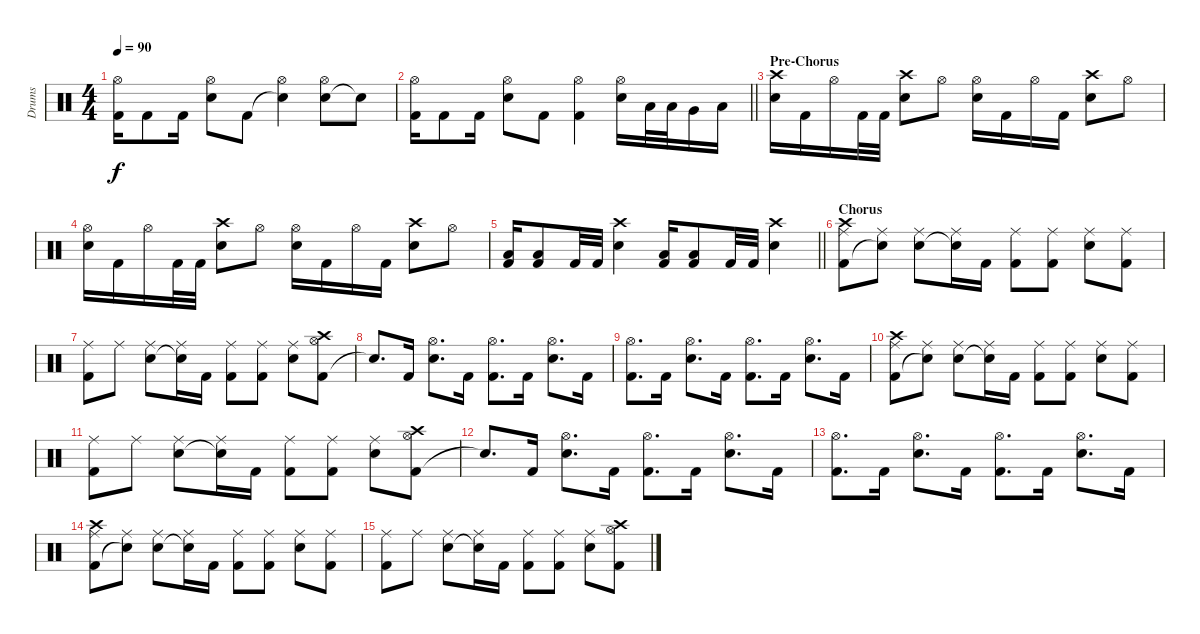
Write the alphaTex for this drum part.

\track ("Drums" "Drums") {instrument percussion}
\staff {score}
\articulation defaults
\ts (4 4)
\tempo 90
\clef neutral
\ks c
("Kick (hit) 2" "Hi-Hat (open)").16{dy f} "Kick (hit) 2".8 "Kick (hit) 2".16 ("Snare (hit) 2" "Hi-Hat (open)").8 "Kick (hit) 2".8 ("Snare (hit)"{t} "Hi-Hat (open)").4 ("Snare (hit) 2" "Hi-Hat (open)").8 "Snare (hit)"{t}.8 |
\barLineRight lightlight
("Kick (hit) 2" "Hi-Hat (open)").16 "Kick (hit) 2".8 "Kick (hit) 2".16 ("Snare (hit) 2" "Hi-Hat (open)").8 "Kick (hit) 2".8 ("Kick (hit) 2" "Hi-Hat (open)").4 ("Snare (hit) 2" "Hi-Hat (open)").16 "Low Tom (hit)".32 "Low Tom (hit)".32 "Very Low Tom (hit)".16 "Low Floor Tom (hit)".16 |
\section ("" "Pre-Chorus")
("Snare (hit) 2" "Crash high (hit)").16 "Kick (hit) 2".16 "Hi-Hat (open)".16 "Kick (hit) 2".32 "Kick (hit) 2".32 ("Snare (hit) 2" "Crash high (hit)").8 "Hi-Hat (open)".8 ("Snare (hit) 2" "Hi-Hat (open)").16 "Kick (hit) 2".16 "Hi-Hat (open)".16 "Kick (hit) 2".16 ("Snare (hit) 2" "Crash high (hit)").8 "Hi-Hat (open)".8 |
("Snare (hit) 2" "Hi-Hat (open)").16 "Kick (hit) 2".16 "Hi-Hat (open)".16 "Kick (hit) 2".32 "Kick (hit) 2".32 ("Snare (hit) 2" "Crash high (hit)").8 "Hi-Hat (open)".8 ("Snare (hit) 2" "Hi-Hat (open)").16 "Kick (hit) 2".16 "Hi-Hat (open)".16 "Kick (hit) 2".16 ("Snare (hit) 2" "Crash high (hit)").8 "Hi-Hat (open)".8 |
\barLineRight lightlight
("Low Floor Tom (hit)" "Kick (hit) 2").16 ("Low Floor Tom (hit)" "Kick (hit) 2").8 "Kick (hit) 2".32 "Kick (hit) 2".32 ("Snare (hit) 2" "Crash high (hit)").4 ("Low Floor Tom (hit)" "Kick (hit) 2").16 ("Low Floor Tom (hit)" "Kick (hit) 2").8 "Kick (hit) 2".32 "Kick (hit) 2".32 ("Snare (hit) 2" "Crash high (hit)").4 |
\section ("" "Chorus")
("Kick (hit) 2" "Ride (middle)" "Crash high (hit)").8 ("Snare (hit)"{t} "Ride (middle)").8 ("Snare (hit) 2" "Ride (middle)").8 ("Snare (hit)"{t} "Ride (middle)").16 "Kick (hit) 2".16 ("Kick (hit) 2" "Ride (middle)").8 ("Kick (hit) 2" "Ride (middle)").8 ("Snare (hit) 2" "Ride (middle)").8 ("Kick (hit) 2" "Ride (middle)").8 |
("Kick (hit) 2" "Ride (middle)").8 "Ride (middle)".8 ("Snare (hit) 2" "Ride (middle)").8 ("Snare (hit)"{t} "Ride (middle)").16 "Kick (hit) 2".16 ("Kick (hit) 2" "Ride (middle)").8 ("Kick (hit) 2" "Ride (middle)").8 ("Snare (hit) 2" "Ride (middle)").8 ("Kick (hit) 2" "Hi-Hat (open)" "Crash high (hit)").8 |
"Snare (hit)"{t}.8{d} "Kick (hit) 2".16 ("Snare (hit) 2" "Hi-Hat (open)").8{d} "Kick (hit) 2".16 ("Kick (hit) 2" "Hi-Hat (open)").8{d} "Kick (hit) 2".16 ("Snare (hit) 2" "Hi-Hat (open)").8{d} "Kick (hit) 2".16 |
("Kick (hit) 2" "Hi-Hat (open)").8{d} "Kick (hit) 2".16 ("Snare (hit) 2" "Hi-Hat (open)").8{d} "Kick (hit) 2".16 ("Kick (hit) 2" "Hi-Hat (open)").8{d} "Kick (hit) 2".16 ("Snare (hit) 2" "Hi-Hat (open)").8{d} "Kick (hit) 2".16 |
("Kick (hit) 2" "Ride (middle)" "Crash high (hit)").8 ("Snare (hit)"{t} "Ride (middle)").8 ("Snare (hit) 2" "Ride (middle)").8 ("Snare (hit)"{t} "Ride (middle)").16 "Kick (hit) 2".16 ("Kick (hit) 2" "Ride (middle)").8 ("Kick (hit) 2" "Ride (middle)").8 ("Snare (hit) 2" "Ride (middle)").8 ("Kick (hit) 2" "Ride (middle)").8 |
("Kick (hit) 2" "Ride (middle)").8 "Ride (middle)".8 ("Snare (hit) 2" "Ride (middle)").8 ("Snare (hit)"{t} "Ride (middle)").16 "Kick (hit) 2".16 ("Kick (hit) 2" "Ride (middle)").8 ("Kick (hit) 2" "Ride (middle)").8 ("Snare (hit) 2" "Ride (middle)").8 ("Kick (hit) 2" "Hi-Hat (open)" "Crash high (hit)").8 |
"Snare (hit)"{t}.8{d} "Kick (hit) 2".16 ("Snare (hit) 2" "Hi-Hat (open)").8{d} "Kick (hit) 2".16 ("Kick (hit) 2" "Hi-Hat (open)").8{d} "Kick (hit) 2".16 ("Snare (hit) 2" "Hi-Hat (open)").8{d} "Kick (hit) 2".16 |
("Kick (hit) 2" "Hi-Hat (open)").8{d} "Kick (hit) 2".16 ("Snare (hit) 2" "Hi-Hat (open)").8{d} "Kick (hit) 2".16 ("Kick (hit) 2" "Hi-Hat (open)").8{d} "Kick (hit) 2".16 ("Snare (hit) 2" "Hi-Hat (open)").8{d} "Kick (hit) 2".16 |
("Kick (hit) 2" "Ride (middle)" "Crash high (hit)").8 ("Snare (hit)"{t} "Ride (middle)").8 ("Snare (hit) 2" "Ride (middle)").8 ("Snare (hit)"{t} "Ride (middle)").16 "Kick (hit) 2".16 ("Kick (hit) 2" "Ride (middle)").8 ("Kick (hit) 2" "Ride (middle)").8 ("Snare (hit) 2" "Ride (middle)").8 ("Kick (hit) 2" "Ride (middle)").8 |
("Kick (hit) 2" "Ride (middle)").8 "Ride (middle)".8 ("Snare (hit) 2" "Ride (middle)").8 ("Snare (hit)"{t} "Ride (middle)").16 "Kick (hit) 2".16 ("Kick (hit) 2" "Ride (middle)").8 ("Kick (hit) 2" "Ride (middle)").8 ("Snare (hit) 2" "Ride (middle)").8 ("Kick (hit) 2" "Hi-Hat (open)" "Crash high (hit)").8
